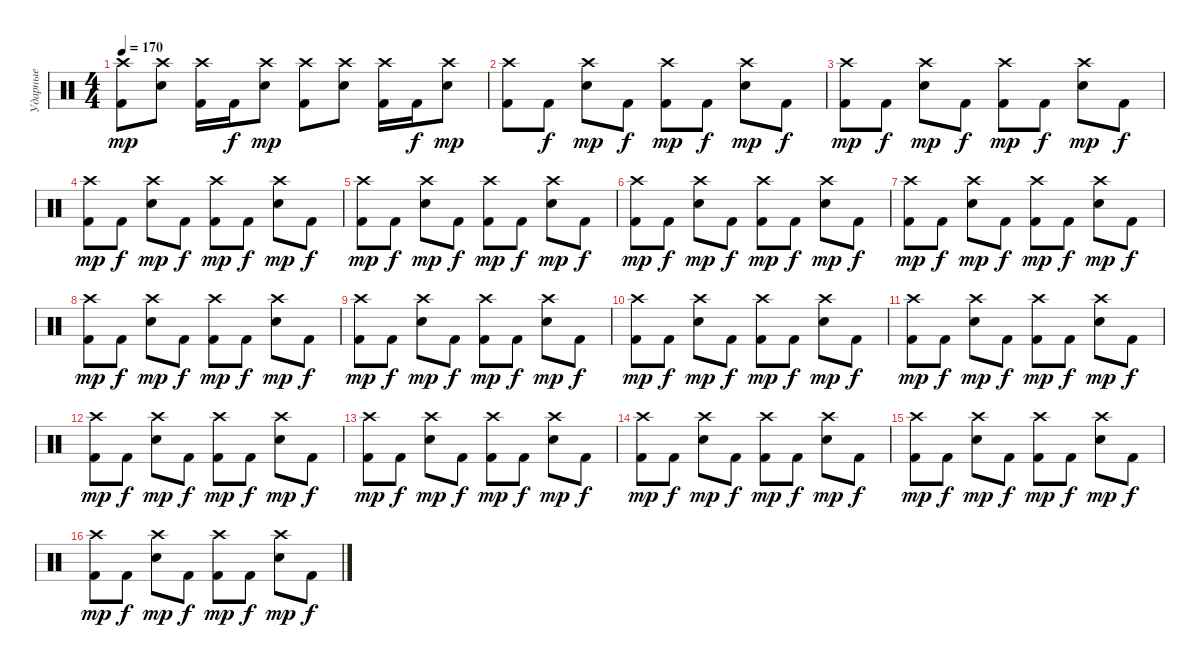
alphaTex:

\track ("Ударные" "Ударные") {instrument percussion}
\staff {score}
\articulation defaults
\ts (4 4)
\tempo 170
\clef neutral
\ks c
("Crash high (hit)" "Kick (hit) 2").8{dy mp} ("Crash high (hit)" "Electric Snare (hit)").8 ("Crash high (hit)" "Kick (hit) 2").16 "Kick (hit) 2".16{dy f} ("Crash high (hit)" "Electric Snare (hit)").8{dy mp} ("Crash high (hit)" "Kick (hit) 2").8 ("Crash high (hit)" "Electric Snare (hit)").8 ("Crash high (hit)" "Kick (hit) 2").16 "Kick (hit) 2".16{dy f} ("Crash high (hit)" "Electric Snare (hit)").8{dy mp} |
("Crash high (hit)" "Kick (hit) 2").8 "Kick (hit) 2".8{dy f} ("Crash high (hit)" "Electric Snare (hit)").8{dy mp} "Kick (hit) 2".8{dy f} ("Crash high (hit)" "Kick (hit) 2").8{dy mp} "Kick (hit) 2".8{dy f} ("Crash high (hit)" "Electric Snare (hit)").8{dy mp} "Kick (hit) 2".8{dy f} |
("Crash high (hit)" "Kick (hit) 2").8{dy mp} "Kick (hit) 2".8{dy f} ("Crash high (hit)" "Electric Snare (hit)").8{dy mp} "Kick (hit) 2".8{dy f} ("Crash high (hit)" "Kick (hit) 2").8{dy mp} "Kick (hit) 2".8{dy f} ("Crash high (hit)" "Electric Snare (hit)").8{dy mp} "Kick (hit) 2".8{dy f} |
("Crash high (hit)" "Kick (hit) 2").8{dy mp} "Kick (hit) 2".8{dy f} ("Crash high (hit)" "Electric Snare (hit)").8{dy mp} "Kick (hit) 2".8{dy f} ("Crash high (hit)" "Kick (hit) 2").8{dy mp} "Kick (hit) 2".8{dy f} ("Crash high (hit)" "Electric Snare (hit)").8{dy mp} "Kick (hit) 2".8{dy f} |
("Crash high (hit)" "Kick (hit) 2").8{dy mp} "Kick (hit) 2".8{dy f} ("Crash high (hit)" "Electric Snare (hit)").8{dy mp} "Kick (hit) 2".8{dy f} ("Crash high (hit)" "Kick (hit) 2").8{dy mp} "Kick (hit) 2".8{dy f} ("Crash high (hit)" "Electric Snare (hit)").8{dy mp} "Kick (hit) 2".8{dy f} |
("Crash high (hit)" "Kick (hit) 2").8{dy mp} "Kick (hit) 2".8{dy f} ("Crash high (hit)" "Electric Snare (hit)").8{dy mp} "Kick (hit) 2".8{dy f} ("Crash high (hit)" "Kick (hit) 2").8{dy mp} "Kick (hit) 2".8{dy f} ("Crash high (hit)" "Electric Snare (hit)").8{dy mp} "Kick (hit) 2".8{dy f} |
("Crash high (hit)" "Kick (hit) 2").8{dy mp} "Kick (hit) 2".8{dy f} ("Crash high (hit)" "Electric Snare (hit)").8{dy mp} "Kick (hit) 2".8{dy f} ("Crash high (hit)" "Kick (hit) 2").8{dy mp} "Kick (hit) 2".8{dy f} ("Crash high (hit)" "Electric Snare (hit)").8{dy mp} "Kick (hit) 2".8{dy f} |
("Crash high (hit)" "Kick (hit) 2").8{dy mp} "Kick (hit) 2".8{dy f} ("Crash high (hit)" "Electric Snare (hit)").8{dy mp} "Kick (hit) 2".8{dy f} ("Crash high (hit)" "Kick (hit) 2").8{dy mp} "Kick (hit) 2".8{dy f} ("Crash high (hit)" "Electric Snare (hit)").8{dy mp} "Kick (hit) 2".8{dy f} |
("Crash high (hit)" "Kick (hit) 2").8{dy mp} "Kick (hit) 2".8{dy f} ("Crash high (hit)" "Electric Snare (hit)").8{dy mp} "Kick (hit) 2".8{dy f} ("Crash high (hit)" "Kick (hit) 2").8{dy mp} "Kick (hit) 2".8{dy f} ("Crash high (hit)" "Electric Snare (hit)").8{dy mp} "Kick (hit) 2".8{dy f} |
("Crash high (hit)" "Kick (hit) 2").8{dy mp} "Kick (hit) 2".8{dy f} ("Crash high (hit)" "Electric Snare (hit)").8{dy mp} "Kick (hit) 2".8{dy f} ("Crash high (hit)" "Kick (hit) 2").8{dy mp} "Kick (hit) 2".8{dy f} ("Crash high (hit)" "Electric Snare (hit)").8{dy mp} "Kick (hit) 2".8{dy f} |
("Crash high (hit)" "Kick (hit) 2").8{dy mp} "Kick (hit) 2".8{dy f} ("Crash high (hit)" "Electric Snare (hit)").8{dy mp} "Kick (hit) 2".8{dy f} ("Crash high (hit)" "Kick (hit) 2").8{dy mp} "Kick (hit) 2".8{dy f} ("Crash high (hit)" "Electric Snare (hit)").8{dy mp} "Kick (hit) 2".8{dy f} |
("Crash high (hit)" "Kick (hit) 2").8{dy mp} "Kick (hit) 2".8{dy f} ("Crash high (hit)" "Electric Snare (hit)").8{dy mp} "Kick (hit) 2".8{dy f} ("Crash high (hit)" "Kick (hit) 2").8{dy mp} "Kick (hit) 2".8{dy f} ("Crash high (hit)" "Electric Snare (hit)").8{dy mp} "Kick (hit) 2".8{dy f} |
("Crash high (hit)" "Kick (hit) 2").8{dy mp} "Kick (hit) 2".8{dy f} ("Crash high (hit)" "Electric Snare (hit)").8{dy mp} "Kick (hit) 2".8{dy f} ("Crash high (hit)" "Kick (hit) 2").8{dy mp} "Kick (hit) 2".8{dy f} ("Crash high (hit)" "Electric Snare (hit)").8{dy mp} "Kick (hit) 2".8{dy f} |
("Crash high (hit)" "Kick (hit) 2").8{dy mp} "Kick (hit) 2".8{dy f} ("Crash high (hit)" "Electric Snare (hit)").8{dy mp} "Kick (hit) 2".8{dy f} ("Crash high (hit)" "Kick (hit) 2").8{dy mp} "Kick (hit) 2".8{dy f} ("Crash high (hit)" "Electric Snare (hit)").8{dy mp} "Kick (hit) 2".8{dy f} |
("Crash high (hit)" "Kick (hit) 2").8{dy mp} "Kick (hit) 2".8{dy f} ("Crash high (hit)" "Electric Snare (hit)").8{dy mp} "Kick (hit) 2".8{dy f} ("Crash high (hit)" "Kick (hit) 2").8{dy mp} "Kick (hit) 2".8{dy f} ("Crash high (hit)" "Electric Snare (hit)").8{dy mp} "Kick (hit) 2".8{dy f} |
("Crash high (hit)" "Kick (hit) 2").8{dy mp} "Kick (hit) 2".8{dy f} ("Crash high (hit)" "Electric Snare (hit)").8{dy mp} "Kick (hit) 2".8{dy f} ("Crash high (hit)" "Kick (hit) 2").8{dy mp} "Kick (hit) 2".8{dy f} ("Crash high (hit)" "Electric Snare (hit)").8{dy mp} "Kick (hit) 2".8{dy f}
